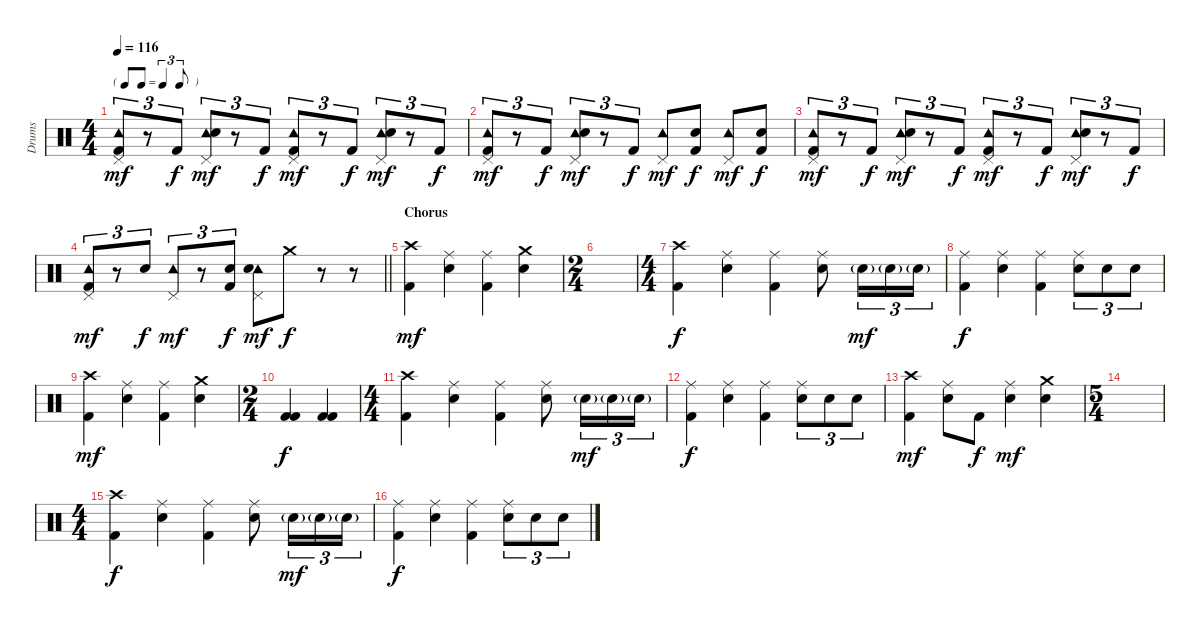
\track ("Drums" "Drums") {instrument percussion}
\staff {score}
\articulation defaults
\ts (4 4)
\tf triplet8th
\tempo 116
\clef neutral
\ks c
("Tambourine (hit)" "Pedal Hi-Hat (hit)" "Kick (hit) 2").8{tu (3 2) dy mf} r.8{tu (3 2)} "Kick (hit) 2".8{tu (3 2) dy f} ("Tambourine (hit)" "Pedal Hi-Hat (hit)" "Snare (hit) 2").8{tu (3 2) dy mf} r.8{tu (3 2)} "Kick (hit) 2".8{tu (3 2) dy f} ("Tambourine (hit)" "Pedal Hi-Hat (hit)" "Kick (hit) 2").8{tu (3 2) dy mf} r.8{tu (3 2)} "Kick (hit) 2".8{tu (3 2) dy f} ("Tambourine (hit)" "Pedal Hi-Hat (hit)" "Snare (hit) 2").8{tu (3 2) dy mf} r.8{tu (3 2)} "Kick (hit) 2".8{tu (3 2) dy f} |
("Tambourine (hit)" "Pedal Hi-Hat (hit)" "Kick (hit) 2").8{tu (3 2) dy mf} r.8{tu (3 2)} "Kick (hit) 2".8{tu (3 2) dy f} ("Tambourine (hit)" "Pedal Hi-Hat (hit)" "Snare (hit) 2").8{tu (3 2) dy mf} r.8{tu (3 2)} "Kick (hit) 2".8{tu (3 2) dy f} ("Tambourine (hit)" "Pedal Hi-Hat (hit)").8{dy mf} ("Snare (hit) 2" "Kick (hit) 2").8{dy f} ("Tambourine (hit)" "Pedal Hi-Hat (hit)").8{dy mf} ("Snare (hit) 2" "Kick (hit) 2").8{dy f} |
("Tambourine (hit)" "Pedal Hi-Hat (hit)" "Kick (hit) 2").8{tu (3 2) dy mf} r.8{tu (3 2)} "Kick (hit) 2".8{tu (3 2) dy f} ("Tambourine (hit)" "Pedal Hi-Hat (hit)" "Snare (hit) 2").8{tu (3 2) dy mf} r.8{tu (3 2)} "Kick (hit) 2".8{tu (3 2) dy f} ("Tambourine (hit)" "Pedal Hi-Hat (hit)" "Kick (hit) 2").8{tu (3 2) dy mf} r.8{tu (3 2)} "Kick (hit) 2".8{tu (3 2) dy f} ("Tambourine (hit)" "Pedal Hi-Hat (hit)" "Snare (hit) 2").8{tu (3 2) dy mf} r.8{tu (3 2)} "Kick (hit) 2".8{tu (3 2) dy f} |
\barLineRight lightlight
("Tambourine (hit)" "Pedal Hi-Hat (hit)" "Kick (hit) 2").8{tu (3 2) dy mf} r.8{tu (3 2)} "Snare (hit) 2".8{tu (3 2) dy f} ("Tambourine (hit)" "Pedal Hi-Hat (hit)").8{tu (3 2) dy mf} r.8{tu (3 2)} ("Snare (hit) 2" "Kick (hit) 2").8{tu (3 2) dy f} ("Tambourine (hit)" "Pedal Hi-Hat (hit)" "Snare (hit) 2").8{dy mf} "Crash medium (hit)".8{dy f} r.8 r.8 |
\section ("" "Chorus")
("Crash high (hit)" "Kick (hit) 2").4{dy mf} ("Ride (middle)" "Snare (hit) 2").4 ("Ride (middle)" "Kick (hit) 2").4 ("Crash medium (hit)" "Snare (hit) 2").4 |
\ts (2 4)
|
\ts (4 4)
("Crash high (hit)" "Kick (hit) 2").4{dy f} ("Ride (middle)" "Snare (hit) 2").4 ("Ride (middle)" "Kick (hit) 2").4 ("Ride (middle)" "Snare (hit) 2").8 "Snare (hit) 2"{g}.16{tu (3 2) dy mf} "Snare (hit) 2"{g}.16{tu (3 2)} "Snare (hit) 2"{g}.16{tu (3 2)} |
("Ride (middle)" "Kick (hit) 2").4{dy f} ("Ride (middle)" "Snare (hit) 2").4 ("Ride (middle)" "Kick (hit) 2").4 ("Ride (middle)" "Snare (hit) 2").8{tu (3 2)} "Snare (hit) 2".8{tu (3 2)} "Snare (hit) 2".8{tu (3 2)} |
("Crash high (hit)" "Kick (hit) 2").4{dy mf} ("Ride (middle)" "Snare (hit) 2").4 ("Ride (middle)" "Kick (hit) 2").4 ("Crash medium (hit)" "Snare (hit) 2").4 |
\ts (2 4)
("Kick (hit) 2" "Kick (hit) 2").4{dy f} ("Kick (hit) 2" "Kick (hit) 2").4 |
\ts (4 4)
("Crash high (hit)" "Kick (hit) 2").4 ("Ride (middle)" "Snare (hit) 2").4 ("Ride (middle)" "Kick (hit) 2").4 ("Ride (middle)" "Snare (hit) 2").8 "Snare (hit) 2"{g}.16{tu (3 2) dy mf} "Snare (hit) 2"{g}.16{tu (3 2)} "Snare (hit) 2"{g}.16{tu (3 2)} |
("Ride (middle)" "Kick (hit) 2").4{dy f} ("Ride (middle)" "Snare (hit) 2").4 ("Ride (middle)" "Kick (hit) 2").4 ("Ride (middle)" "Snare (hit) 2").8{tu (3 2)} "Snare (hit) 2".8{tu (3 2)} "Snare (hit) 2".8{tu (3 2)} |
("Crash high (hit)" "Kick (hit) 2").4{dy mf} ("Ride (middle)" "Snare (hit) 2").8 "Kick (hit) 2".8{dy f} ("Ride (middle)" "Snare (hit) 2").4{dy mf} ("Crash medium (hit)" "Snare (hit) 2").4 |
\ts (5 4)
|
\ts (4 4)
("Crash high (hit)" "Kick (hit) 2").4{dy f} ("Ride (middle)" "Snare (hit) 2").4 ("Ride (middle)" "Kick (hit) 2").4 ("Ride (middle)" "Snare (hit) 2").8 "Snare (hit) 2"{g}.16{tu (3 2) dy mf} "Snare (hit) 2"{g}.16{tu (3 2)} "Snare (hit) 2"{g}.16{tu (3 2)} |
("Ride (middle)" "Kick (hit) 2").4{dy f} ("Ride (middle)" "Snare (hit) 2").4 ("Ride (middle)" "Kick (hit) 2").4 ("Ride (middle)" "Snare (hit) 2").8{tu (3 2)} "Snare (hit) 2".8{tu (3 2)} "Snare (hit) 2".8{tu (3 2)}
